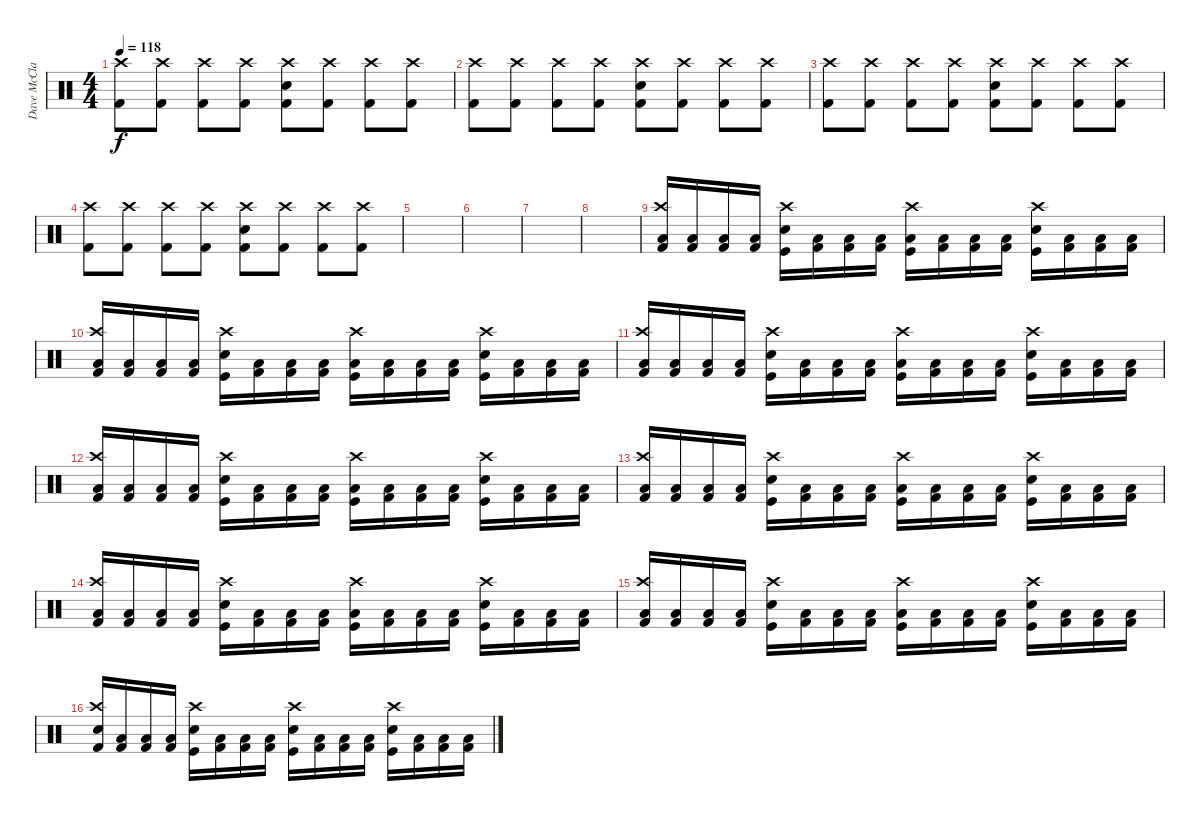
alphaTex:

\track ("Dave McClain" "Dave McCla") {instrument percussion}
\staff {score}
\articulation defaults
\ts (4 4)
\tempo 118
\clef neutral
\ks c
("Kick (hit) 2" "Crash high (hit)").8{dy f} ("Kick (hit) 2" "Crash high (hit)").8 ("Kick (hit) 2" "Crash high (hit)").8 ("Kick (hit) 2" "Crash high (hit)").8 ("Kick (hit) 2" "Snare (hit) 2" "Crash high (hit)").8 ("Kick (hit) 2" "Crash high (hit)").8 ("Kick (hit) 2" "Crash high (hit)").8 ("Kick (hit) 2" "Crash high (hit)").8 |
("Kick (hit) 2" "Crash high (hit)").8 ("Kick (hit) 2" "Crash high (hit)").8 ("Kick (hit) 2" "Crash high (hit)").8 ("Kick (hit) 2" "Crash high (hit)").8 ("Kick (hit) 2" "Snare (hit) 2" "Crash high (hit)").8 ("Kick (hit) 2" "Crash high (hit)").8 ("Kick (hit) 2" "Crash high (hit)").8 ("Kick (hit) 2" "Crash high (hit)").8 |
("Kick (hit) 2" "Crash high (hit)").8 ("Kick (hit) 2" "Crash high (hit)").8 ("Kick (hit) 2" "Crash high (hit)").8 ("Kick (hit) 2" "Crash high (hit)").8 ("Kick (hit) 2" "Snare (hit) 2" "Crash high (hit)").8 ("Kick (hit) 2" "Crash high (hit)").8 ("Kick (hit) 2" "Crash high (hit)").8 ("Kick (hit) 2" "Crash high (hit)").8 |
("Kick (hit) 2" "Crash high (hit)").8 ("Kick (hit) 2" "Crash high (hit)").8 ("Kick (hit) 2" "Crash high (hit)").8 ("Kick (hit) 2" "Crash high (hit)").8 ("Kick (hit) 2" "Snare (hit) 2" "Crash high (hit)").8 ("Kick (hit) 2" "Crash high (hit)").8 ("Kick (hit) 2" "Crash high (hit)").8 ("Kick (hit) 2" "Crash high (hit)").8 |
|
|
|
|
("Kick (hit) 2" "Low Floor Tom (hit)" "Crash high (hit)").16 ("Kick (hit) 2" "Low Floor Tom (hit)").16 ("Kick (hit) 2" "Low Floor Tom (hit)").16 ("Kick (hit) 2" "Low Floor Tom (hit)").16 ("Kick (hit)" "Snare (hit) 2" "Crash high (hit)").16 ("Kick (hit) 2" "Low Floor Tom (hit)").16 ("Kick (hit) 2" "Low Floor Tom (hit)").16 ("Kick (hit) 2" "Low Floor Tom (hit)").16 ("Kick (hit)" "Low Floor Tom (hit)" "Crash high (hit)").16 ("Kick (hit) 2" "Low Floor Tom (hit)").16 ("Kick (hit) 2" "Low Floor Tom (hit)").16 ("Kick (hit) 2" "Low Floor Tom (hit)").16 ("Kick (hit)" "Snare (hit) 2" "Crash high (hit)").16 ("Kick (hit) 2" "Low Floor Tom (hit)").16 ("Kick (hit) 2" "Low Floor Tom (hit)").16 ("Kick (hit) 2" "Low Floor Tom (hit)").16 |
("Kick (hit) 2" "Low Floor Tom (hit)" "Crash high (hit)").16 ("Kick (hit) 2" "Low Floor Tom (hit)").16 ("Kick (hit) 2" "Low Floor Tom (hit)").16 ("Kick (hit) 2" "Low Floor Tom (hit)").16 ("Kick (hit)" "Snare (hit) 2" "Crash high (hit)").16 ("Kick (hit) 2" "Low Floor Tom (hit)").16 ("Kick (hit) 2" "Low Floor Tom (hit)").16 ("Kick (hit) 2" "Low Floor Tom (hit)").16 ("Kick (hit)" "Low Floor Tom (hit)" "Crash high (hit)").16 ("Kick (hit) 2" "Low Floor Tom (hit)").16 ("Kick (hit) 2" "Low Floor Tom (hit)").16 ("Kick (hit) 2" "Low Floor Tom (hit)").16 ("Kick (hit)" "Snare (hit) 2" "Crash high (hit)").16 ("Kick (hit) 2" "Low Floor Tom (hit)").16 ("Kick (hit) 2" "Low Floor Tom (hit)").16 ("Kick (hit) 2" "Low Floor Tom (hit)").16 |
("Kick (hit) 2" "Low Floor Tom (hit)" "Crash high (hit)").16 ("Kick (hit) 2" "Low Floor Tom (hit)").16 ("Kick (hit) 2" "Low Floor Tom (hit)").16 ("Kick (hit) 2" "Low Floor Tom (hit)").16 ("Kick (hit)" "Snare (hit) 2" "Crash high (hit)").16 ("Kick (hit) 2" "Low Floor Tom (hit)").16 ("Kick (hit) 2" "Low Floor Tom (hit)").16 ("Kick (hit) 2" "Low Floor Tom (hit)").16 ("Kick (hit)" "Low Floor Tom (hit)" "Crash high (hit)").16 ("Kick (hit) 2" "Low Floor Tom (hit)").16 ("Kick (hit) 2" "Low Floor Tom (hit)").16 ("Kick (hit) 2" "Low Floor Tom (hit)").16 ("Kick (hit)" "Snare (hit) 2" "Crash high (hit)").16 ("Kick (hit) 2" "Low Floor Tom (hit)").16 ("Kick (hit) 2" "Low Floor Tom (hit)").16 ("Kick (hit) 2" "Low Floor Tom (hit)").16 |
("Kick (hit) 2" "Low Floor Tom (hit)" "Crash high (hit)").16 ("Kick (hit) 2" "Low Floor Tom (hit)").16 ("Kick (hit) 2" "Low Floor Tom (hit)").16 ("Kick (hit) 2" "Low Floor Tom (hit)").16 ("Kick (hit)" "Snare (hit) 2" "Crash high (hit)").16 ("Kick (hit) 2" "Low Floor Tom (hit)").16 ("Kick (hit) 2" "Low Floor Tom (hit)").16 ("Kick (hit) 2" "Low Floor Tom (hit)").16 ("Kick (hit)" "Low Floor Tom (hit)" "Crash high (hit)").16 ("Kick (hit) 2" "Low Floor Tom (hit)").16 ("Kick (hit) 2" "Low Floor Tom (hit)").16 ("Kick (hit) 2" "Low Floor Tom (hit)").16 ("Kick (hit)" "Snare (hit) 2" "Crash high (hit)").16 ("Kick (hit) 2" "Low Floor Tom (hit)").16 ("Kick (hit) 2" "Low Floor Tom (hit)").16 ("Kick (hit) 2" "Low Floor Tom (hit)").16 |
("Kick (hit) 2" "Low Floor Tom (hit)" "Crash high (hit)").16 ("Kick (hit) 2" "Low Floor Tom (hit)").16 ("Kick (hit) 2" "Low Floor Tom (hit)").16 ("Kick (hit) 2" "Low Floor Tom (hit)").16 ("Kick (hit)" "Snare (hit) 2" "Crash high (hit)").16 ("Kick (hit) 2" "Low Floor Tom (hit)").16 ("Kick (hit) 2" "Low Floor Tom (hit)").16 ("Kick (hit) 2" "Low Floor Tom (hit)").16 ("Kick (hit)" "Low Floor Tom (hit)" "Crash high (hit)").16 ("Kick (hit) 2" "Low Floor Tom (hit)").16 ("Kick (hit) 2" "Low Floor Tom (hit)").16 ("Kick (hit) 2" "Low Floor Tom (hit)").16 ("Kick (hit)" "Snare (hit) 2" "Crash high (hit)").16 ("Kick (hit) 2" "Low Floor Tom (hit)").16 ("Kick (hit) 2" "Low Floor Tom (hit)").16 ("Kick (hit) 2" "Low Floor Tom (hit)").16 |
("Kick (hit) 2" "Low Floor Tom (hit)" "Crash high (hit)").16 ("Kick (hit) 2" "Low Floor Tom (hit)").16 ("Kick (hit) 2" "Low Floor Tom (hit)").16 ("Kick (hit) 2" "Low Floor Tom (hit)").16 ("Kick (hit)" "Snare (hit) 2" "Crash high (hit)").16 ("Kick (hit) 2" "Low Floor Tom (hit)").16 ("Kick (hit) 2" "Low Floor Tom (hit)").16 ("Kick (hit) 2" "Low Floor Tom (hit)").16 ("Kick (hit)" "Low Floor Tom (hit)" "Crash high (hit)").16 ("Kick (hit) 2" "Low Floor Tom (hit)").16 ("Kick (hit) 2" "Low Floor Tom (hit)").16 ("Kick (hit) 2" "Low Floor Tom (hit)").16 ("Kick (hit)" "Snare (hit) 2" "Crash high (hit)").16 ("Kick (hit) 2" "Low Floor Tom (hit)").16 ("Kick (hit) 2" "Low Floor Tom (hit)").16 ("Kick (hit) 2" "Low Floor Tom (hit)").16 |
("Kick (hit) 2" "Low Floor Tom (hit)" "Crash high (hit)").16 ("Kick (hit) 2" "Low Floor Tom (hit)").16 ("Kick (hit) 2" "Low Floor Tom (hit)").16 ("Kick (hit) 2" "Low Floor Tom (hit)").16 ("Kick (hit)" "Snare (hit) 2" "Crash high (hit)").16 ("Kick (hit) 2" "Low Floor Tom (hit)").16 ("Kick (hit) 2" "Low Floor Tom (hit)").16 ("Kick (hit) 2" "Low Floor Tom (hit)").16 ("Kick (hit)" "Low Floor Tom (hit)" "Crash high (hit)").16 ("Kick (hit) 2" "Low Floor Tom (hit)").16 ("Kick (hit) 2" "Low Floor Tom (hit)").16 ("Kick (hit) 2" "Low Floor Tom (hit)").16 ("Kick (hit)" "Snare (hit) 2" "Crash high (hit)").16 ("Kick (hit) 2" "Low Floor Tom (hit)").16 ("Kick (hit) 2" "Low Floor Tom (hit)").16 ("Kick (hit) 2" "Low Floor Tom (hit)").16 |
("Kick (hit) 2" "Snare (hit) 2" "Crash high (hit)").16 ("Kick (hit) 2" "Low Floor Tom (hit)").16 ("Kick (hit) 2" "Low Floor Tom (hit)").16 ("Kick (hit) 2" "Low Floor Tom (hit)").16 ("Kick (hit)" "Snare (hit) 2" "Crash high (hit)").16 ("Kick (hit) 2" "Low Floor Tom (hit)").16 ("Kick (hit) 2" "Low Floor Tom (hit)").16 ("Kick (hit) 2" "Low Floor Tom (hit)").16 ("Kick (hit)" "Snare (hit) 2" "Crash high (hit)").16 ("Kick (hit) 2" "Low Floor Tom (hit)").16 ("Kick (hit) 2" "Low Floor Tom (hit)").16 ("Kick (hit) 2" "Low Floor Tom (hit)").16 ("Kick (hit)" "Snare (hit) 2" "Crash high (hit)").16 ("Kick (hit) 2" "Low Floor Tom (hit)").16 ("Kick (hit) 2" "Low Floor Tom (hit)").16 ("Kick (hit) 2" "Low Floor Tom (hit)").16
